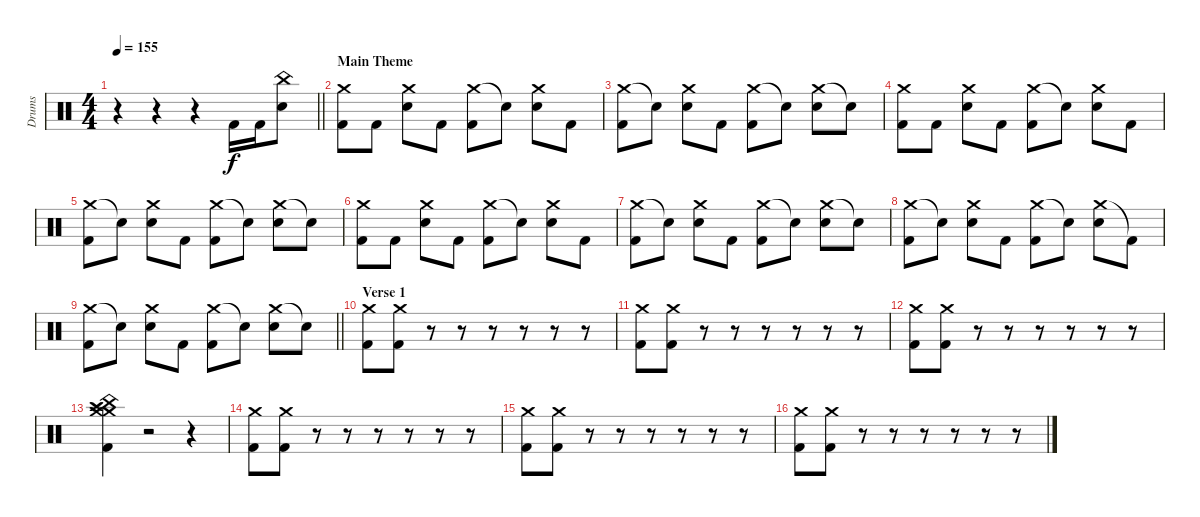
\track ("Drums" "Drums") {instrument percussion}
\staff {score}
\articulation defaults
\ts (4 4)
\tempo 155
\clef neutral
\barLineRight lightlight
\ks c
r.4{dy f} r.4 r.4 "Kick (hit) 2".16 "Kick (hit) 2".16 ("China (hit)" "Electric Snare (hit)").8 |
\section ("" "Main Theme")
("Crash medium (hit)" "Kick (hit) 2").8 "Kick (hit) 2".8 ("Crash medium (hit)" "Electric Snare (hit)").8 "Kick (hit) 2".8 ("Crash medium (hit)" "Kick (hit) 2").8 "Snare (hit)"{t}.8 ("Crash medium (hit)" "Electric Snare (hit)").8 "Kick (hit) 2".8 |
("Crash medium (hit)" "Kick (hit) 2").8 "Snare (hit)"{t}.8 ("Crash medium (hit)" "Electric Snare (hit)").8 "Kick (hit) 2".8 ("Crash medium (hit)" "Kick (hit) 2").8 "Snare (hit)"{t}.8 ("Crash medium (hit)" "Electric Snare (hit)").8 "Snare (hit)"{t}.8 |
("Crash medium (hit)" "Kick (hit) 2").8 "Kick (hit) 2".8 ("Crash medium (hit)" "Electric Snare (hit)").8 "Kick (hit) 2".8 ("Crash medium (hit)" "Kick (hit) 2").8 "Snare (hit)"{t}.8 ("Crash medium (hit)" "Electric Snare (hit)").8 "Kick (hit) 2".8 |
("Crash medium (hit)" "Kick (hit) 2").8 "Snare (hit)"{t}.8 ("Crash medium (hit)" "Electric Snare (hit)").8 "Kick (hit) 2".8 ("Crash medium (hit)" "Kick (hit) 2").8 "Snare (hit)"{t}.8 ("Crash medium (hit)" "Electric Snare (hit)").8 "Snare (hit)"{t}.8 |
("Crash medium (hit)" "Kick (hit) 2").8 "Kick (hit) 2".8 ("Crash medium (hit)" "Electric Snare (hit)").8 "Kick (hit) 2".8 ("Crash medium (hit)" "Kick (hit) 2").8 "Snare (hit)"{t}.8 ("Crash medium (hit)" "Electric Snare (hit)").8 "Kick (hit) 2".8 |
("Crash medium (hit)" "Kick (hit) 2").8 "Snare (hit)"{t}.8 ("Crash medium (hit)" "Electric Snare (hit)").8 "Kick (hit) 2".8 ("Crash medium (hit)" "Kick (hit) 2").8 "Snare (hit)"{t}.8 ("Crash medium (hit)" "Electric Snare (hit)").8 "Snare (hit)"{t}.8 |
("Crash medium (hit)" "Kick (hit) 2").8 "Snare (hit)"{t}.8 ("Crash medium (hit)" "Electric Snare (hit)").8 "Kick (hit) 2".8 ("Crash medium (hit)" "Kick (hit) 2").8 "Snare (hit)"{t}.8 ("Crash medium (hit)" "Electric Snare (hit)").8 "Kick (hit) 2"{t}.8 |
\barLineRight lightlight
("Crash medium (hit)" "Kick (hit) 2").8 "Electric Snare (hit)"{t}.8 ("Crash medium (hit)" "Electric Snare (hit)").8 "Kick (hit) 2".8 ("Crash medium (hit)" "Kick (hit) 2").8 "Electric Snare (hit)"{t}.8 ("Crash medium (hit)" "Electric Snare (hit)").8 "Snare (hit)"{t}.8 |
\section ("" "Verse 1")
("Crash medium (hit)" "Kick (hit) 2").8 ("Crash medium (hit)" "Kick (hit) 2").8 r.8 r.8 r.8 r.8 r.8 r.8 |
("Crash medium (hit)" "Kick (hit) 2").8 ("Crash medium (hit)" "Kick (hit) 2").8 r.8 r.8 r.8 r.8 r.8 r.8 |
("Crash medium (hit)" "Kick (hit) 2").8 ("Crash medium (hit)" "Kick (hit) 2").8 r.8 r.8 r.8 r.8 r.8 r.8 |
("Crash medium (hit)" "Splash (hit)" "China (hit)" "Crash high (hit)" "Crash medium (hit)" "Kick (hit) 2").4 r.2 r.4 |
("Crash medium (hit)" "Kick (hit) 2").8 ("Crash medium (hit)" "Kick (hit) 2").8 r.8 r.8 r.8 r.8 r.8 r.8 |
("Crash medium (hit)" "Kick (hit) 2").8 ("Crash medium (hit)" "Kick (hit) 2").8 r.8 r.8 r.8 r.8 r.8 r.8 |
("Crash medium (hit)" "Kick (hit) 2").8 ("Crash medium (hit)" "Kick (hit) 2").8 r.8 r.8 r.8 r.8 r.8 r.8
